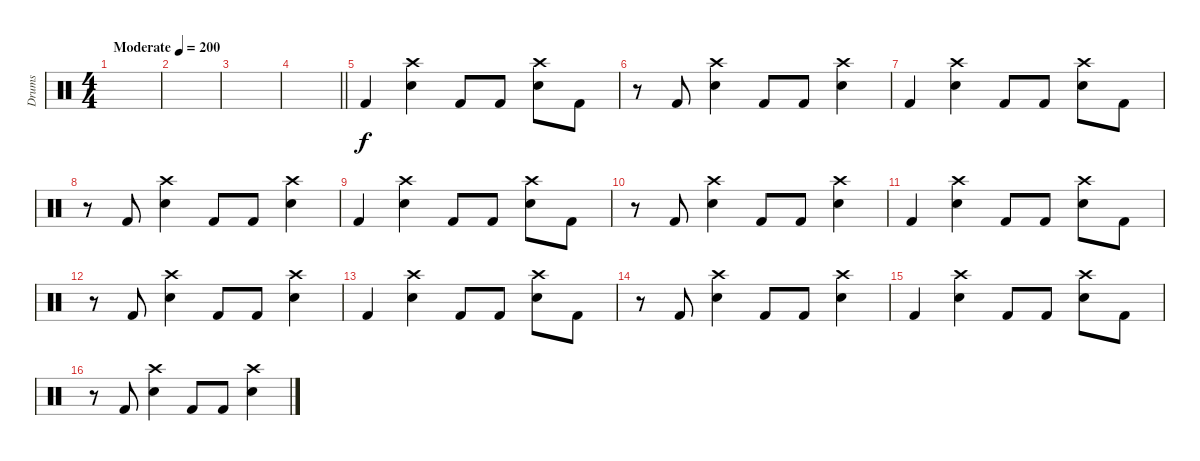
\track ("Drums" "Drums") {instrument percussion}
\staff {score}
\articulation defaults
\ts (4 4)
\tempo (200 "Moderate")
\clef neutral
\ks c
|
|
|
\barLineRight lightlight
|
"Kick (hit) 2".4 ("Crash high (hit)" "Electric Snare (hit)").4 "Kick (hit) 2".8 "Kick (hit) 2".8 ("Crash high (hit)" "Electric Snare (hit)").8 "Kick (hit) 2".8 |
r.8 "Kick (hit) 2".8 ("Crash high (hit)" "Electric Snare (hit)").4 "Kick (hit) 2".8 "Kick (hit) 2".8 ("Crash high (hit)" "Electric Snare (hit)").4 |
"Kick (hit) 2".4 ("Crash high (hit)" "Electric Snare (hit)").4 "Kick (hit) 2".8 "Kick (hit) 2".8 ("Crash high (hit)" "Electric Snare (hit)").8 "Kick (hit) 2".8 |
r.8 "Kick (hit) 2".8 ("Crash high (hit)" "Electric Snare (hit)").4 "Kick (hit) 2".8 "Kick (hit) 2".8 ("Crash high (hit)" "Electric Snare (hit)").4 |
"Kick (hit) 2".4 ("Crash high (hit)" "Electric Snare (hit)").4 "Kick (hit) 2".8 "Kick (hit) 2".8 ("Crash high (hit)" "Electric Snare (hit)").8 "Kick (hit) 2".8 |
r.8 "Kick (hit) 2".8 ("Crash high (hit)" "Electric Snare (hit)").4 "Kick (hit) 2".8 "Kick (hit) 2".8 ("Crash high (hit)" "Electric Snare (hit)").4 |
"Kick (hit) 2".4 ("Crash high (hit)" "Electric Snare (hit)").4 "Kick (hit) 2".8 "Kick (hit) 2".8 ("Crash high (hit)" "Electric Snare (hit)").8 "Kick (hit) 2".8 |
r.8 "Kick (hit) 2".8 ("Crash high (hit)" "Electric Snare (hit)").4 "Kick (hit) 2".8 "Kick (hit) 2".8 ("Crash high (hit)" "Electric Snare (hit)").4 |
"Kick (hit) 2".4 ("Crash high (hit)" "Electric Snare (hit)").4 "Kick (hit) 2".8 "Kick (hit) 2".8 ("Crash high (hit)" "Electric Snare (hit)").8 "Kick (hit) 2".8 |
r.8 "Kick (hit) 2".8 ("Crash high (hit)" "Electric Snare (hit)").4 "Kick (hit) 2".8 "Kick (hit) 2".8 ("Crash high (hit)" "Electric Snare (hit)").4 |
"Kick (hit) 2".4 ("Crash high (hit)" "Electric Snare (hit)").4 "Kick (hit) 2".8 "Kick (hit) 2".8 ("Crash high (hit)" "Electric Snare (hit)").8 "Kick (hit) 2".8 |
r.8 "Kick (hit) 2".8 ("Crash high (hit)" "Electric Snare (hit)").4 "Kick (hit) 2".8 "Kick (hit) 2".8 ("Crash high (hit)" "Electric Snare (hit)").4
